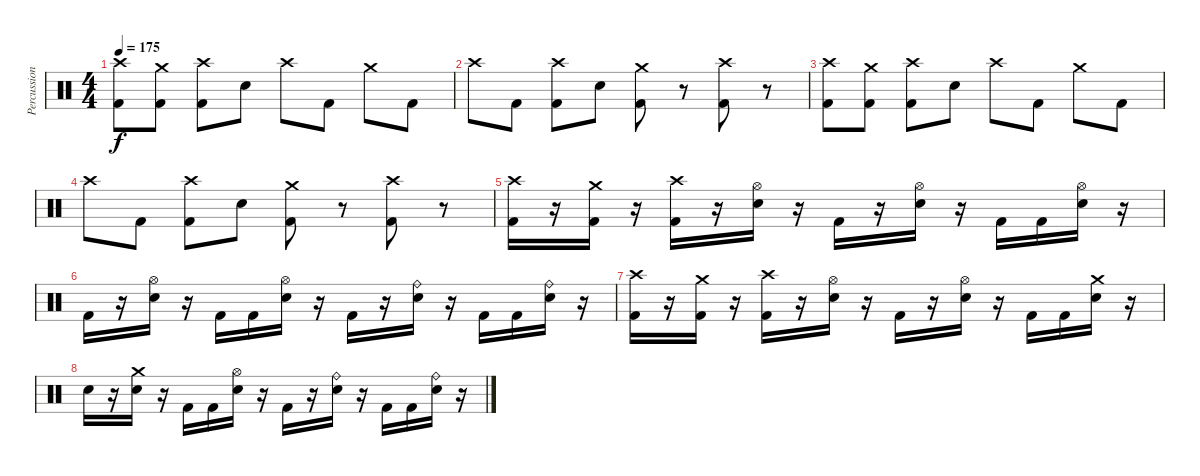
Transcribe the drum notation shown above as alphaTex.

\track ("Percussion" "Percussion") {instrument percussion}
\staff {score}
\articulation defaults
\ts (4 4)
\tempo 175
\clef neutral
\ks c
("Crash high (hit)" "Kick (hit) 2").8{dy f} ("Crash medium (hit)" "Kick (hit) 2").8 ("Crash high (hit)" "Kick (hit) 2").8 "Snare (hit) 2".8 "Crash high (hit)".8 "Kick (hit) 2".8 "Crash medium (hit)".8 "Kick (hit) 2".8 |
"Crash high (hit)".8 "Kick (hit) 2".8 ("Crash high (hit)" "Kick (hit) 2").8 "Snare (hit) 2".8 ("Crash medium (hit)" "Kick (hit) 2").8 r.8 ("Crash high (hit)" "Kick (hit) 2").8 r.8 |
("Crash high (hit)" "Kick (hit) 2").8 ("Crash medium (hit)" "Kick (hit) 2").8 ("Crash high (hit)" "Kick (hit) 2").8 "Snare (hit) 2".8 "Crash high (hit)".8 "Kick (hit) 2".8 "Crash medium (hit)".8 "Kick (hit) 2".8 |
"Crash high (hit)".8 "Kick (hit) 2".8 ("Crash high (hit)" "Kick (hit) 2").8 "Snare (hit) 2".8 ("Crash medium (hit)" "Kick (hit) 2").8 r.8 ("Crash high (hit)" "Kick (hit) 2").8 r.8 |
("Crash high (hit)" "Kick (hit) 2").16 r.16 ("Crash medium (hit)" "Kick (hit) 2").16 r.16 ("Crash high (hit)" "Kick (hit) 2").16 r.16 ("Hi-Hat (open)" "Snare (hit) 2").16 r.16 "Kick (hit) 2".16 r.16 ("Hi-Hat (open)" "Snare (hit) 2").16 r.16 "Kick (hit) 2".16 "Kick (hit) 2".16 ("Hi-Hat (open)" "Snare (hit) 2").16 r.16 |
"Kick (hit) 2".16 r.16 ("Hi-Hat (open)" "Snare (hit) 2").16 r.16 "Kick (hit) 2".16 "Kick (hit) 2".16 ("Hi-Hat (open)" "Snare (hit) 2").16 r.16 "Kick (hit) 2".16 r.16 ("Ride (bell)" "Snare (hit) 2").16 r.16 "Kick (hit) 2".16 "Kick (hit) 2".16 ("Ride (bell)" "Snare (hit) 2").16 r.16 |
("Crash high (hit)" "Kick (hit) 2").16 r.16 ("Crash medium (hit)" "Kick (hit) 2").16 r.16 ("Crash high (hit)" "Kick (hit) 2").16 r.16 ("Hi-Hat (open)" "Snare (hit) 2").16 r.16 "Kick (hit) 2".16 r.16 ("Hi-Hat (open)" "Snare (hit) 2").16 r.16 "Kick (hit) 2".16 "Kick (hit) 2".16 ("Crash medium (hit)" "Snare (hit) 2").16 r.16 |
"Snare (hit) 2".16 r.16 ("Crash medium (hit)" "Snare (hit) 2").16 r.16 "Kick (hit) 2".16 "Kick (hit) 2".16 ("Hi-Hat (open)" "Snare (hit) 2").16 r.16 "Kick (hit) 2".16 r.16 ("Ride (bell)" "Snare (hit) 2").16 r.16 "Kick (hit) 2".16 "Kick (hit) 2".16 ("Ride (bell)" "Snare (hit) 2").16 r.16
